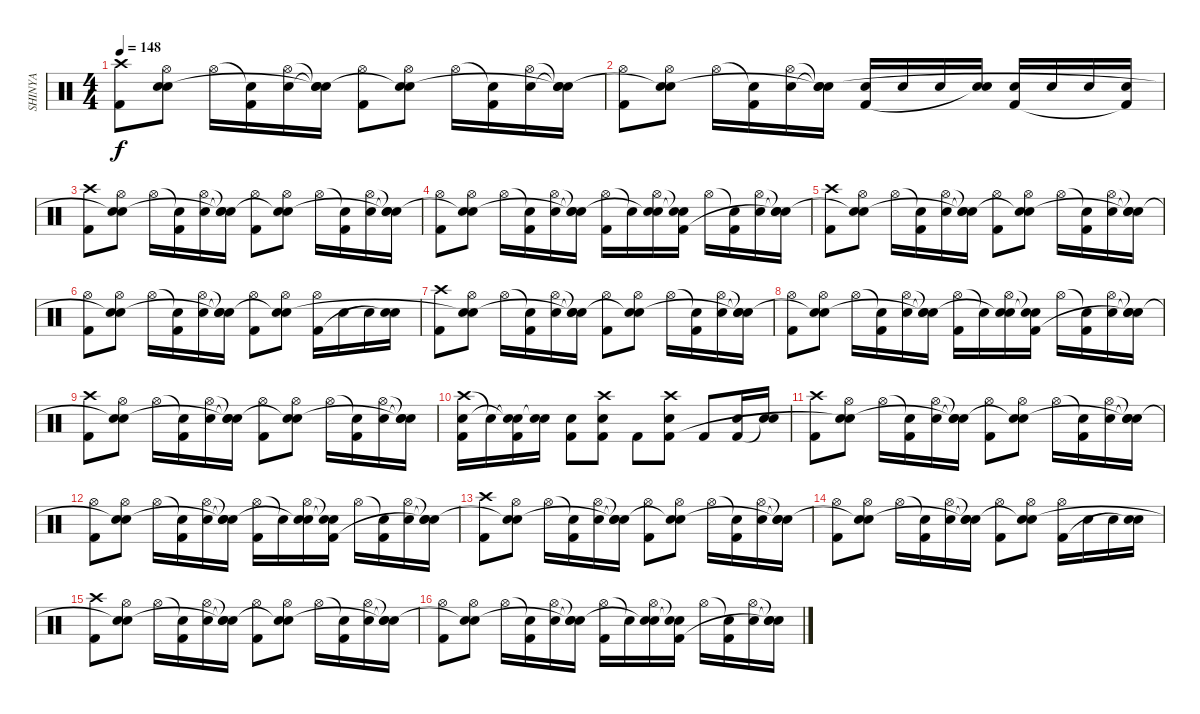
\track ("SHINYA" "SHINYA") {instrument percussion}
\staff {score}
\articulation defaults
\ts (4 4)
\tempo 148
\clef neutral
\ks c
("Crash high (hit)" "Kick (hit) 2").8{dy f} ("Hi-Hat (open)" "Electric Snare (hit)" "Snare (hit)"{t}).8 "Hi-Hat (open)".16 ("Snare (hit)"{t} "Kick (hit) 2").16 ("Hi-Hat (open)" "Electric Snare (hit)").16 ("Snare (hit)"{t} "Electric Snare (hit)"{t} "Snare (hit)"{t}).16 ("Hi-Hat (open)" "Kick (hit) 2").8 ("Hi-Hat (open)" "Electric Snare (hit)" "Snare (hit)"{t}).8 "Hi-Hat (open)".16 ("Snare (hit)"{t} "Kick (hit) 2").16 ("Hi-Hat (open)" "Electric Snare (hit)").16 ("Snare (hit)"{t} "Electric Snare (hit)"{t} "Snare (hit)"{t}).16 |
("Hi-Hat (open)" "Kick (hit) 2").8 ("Hi-Hat (open)" "Electric Snare (hit)" "Snare (hit)"{t}).8 "Hi-Hat (open)".16 ("Snare (hit)"{t} "Kick (hit) 2").16 ("Hi-Hat (open)" "Electric Snare (hit)").16 ("Snare (hit)"{t} "Snare (hit)"{t} "Snare (hit)"{t}).16 ("Electric Snare (hit)" "Kick (hit) 2").16 "Electric Snare (hit)".16 "Electric Snare (hit)".16 ("Electric Snare (hit)" "Snare (hit)"{t}).16 ("Electric Snare (hit)" "Kick (hit) 2").16 "Electric Snare (hit)".16 "Electric Snare (hit)".16 ("Electric Snare (hit)" "Kick (hit) 2"{t}).16 |
("Crash high (hit)" "Kick (hit) 2").8 ("Hi-Hat (open)" "Electric Snare (hit)" "Snare (hit)"{t}).8 "Hi-Hat (open)".16 ("Snare (hit)"{t} "Kick (hit) 2").16 ("Hi-Hat (open)" "Electric Snare (hit)").16 ("Snare (hit)"{t} "Electric Snare (hit)"{t} "Snare (hit)"{t}).16 ("Hi-Hat (open)" "Kick (hit) 2").8 ("Hi-Hat (open)" "Electric Snare (hit)" "Snare (hit)"{t}).8 "Hi-Hat (open)".16 ("Snare (hit)"{t} "Kick (hit) 2").16 ("Hi-Hat (open)" "Electric Snare (hit)").16 ("Snare (hit)"{t} "Electric Snare (hit)"{t} "Snare (hit)"{t}).16 |
("Hi-Hat (open)" "Kick (hit) 2").8 ("Hi-Hat (open)" "Electric Snare (hit)" "Snare (hit)"{t}).8 "Hi-Hat (open)".16 ("Snare (hit)"{t} "Kick (hit) 2").16 ("Hi-Hat (open)" "Electric Snare (hit)").16 ("Snare (hit)"{t} "Electric Snare (hit)"{t} "Snare (hit)"{t}).16 ("Hi-Hat (open)" "Kick (hit) 2").16 "Snare (hit)"{t}.16 ("Hi-Hat (open)" "Electric Snare (hit)" "Snare (hit)"{t}).16 ("Snare (hit)"{t} "Snare (hit)"{t} "Kick (hit) 2").16 "Hi-Hat (open)".16 ("Snare (hit)"{t} "Kick (hit) 2").16 ("Hi-Hat (open)" "Electric Snare (hit)").16 ("Snare (hit)"{t} "Electric Snare (hit)"{t} "Snare (hit)"{t}).16 |
("Crash high (hit)" "Kick (hit) 2").8 ("Hi-Hat (open)" "Electric Snare (hit)" "Snare (hit)"{t}).8 "Hi-Hat (open)".16 ("Snare (hit)"{t} "Kick (hit) 2").16 ("Hi-Hat (open)" "Electric Snare (hit)").16 ("Snare (hit)"{t} "Electric Snare (hit)"{t} "Snare (hit)"{t}).16 ("Hi-Hat (open)" "Kick (hit) 2").8 ("Hi-Hat (open)" "Electric Snare (hit)" "Snare (hit)"{t}).8 "Hi-Hat (open)".16 ("Snare (hit)"{t} "Kick (hit) 2").16 ("Hi-Hat (open)" "Electric Snare (hit)").16 ("Snare (hit)"{t} "Electric Snare (hit)"{t} "Snare (hit)"{t}).16 |
("Hi-Hat (open)" "Kick (hit) 2").8 ("Hi-Hat (open)" "Electric Snare (hit)" "Snare (hit)"{t}).8 "Hi-Hat (open)".16 ("Snare (hit)"{t} "Kick (hit) 2").16 ("Hi-Hat (open)" "Electric Snare (hit)").16 ("Snare (hit)"{t} "Electric Snare (hit)"{t} "Snare (hit)"{t}).16 ("Hi-Hat (open)" "Kick (hit) 2").8 ("Hi-Hat (open)" "Electric Snare (hit)" "Snare (hit)"{t}).8 ("Hi-Hat (open)" "Kick (hit) 2").16 "Electric Snare (hit)".16 "Electric Snare (hit)".16 ("Electric Snare (hit)" "Snare (hit)"{t}).16 |
("Crash high (hit)" "Kick (hit) 2").8 ("Hi-Hat (open)" "Electric Snare (hit)" "Snare (hit)"{t}).8 "Hi-Hat (open)".16 ("Snare (hit)"{t} "Kick (hit) 2").16 ("Hi-Hat (open)" "Electric Snare (hit)").16 ("Snare (hit)"{t} "Electric Snare (hit)"{t} "Snare (hit)"{t}).16 ("Hi-Hat (open)" "Kick (hit) 2").8 ("Hi-Hat (open)" "Electric Snare (hit)" "Snare (hit)"{t}).8 "Hi-Hat (open)".16 ("Snare (hit)"{t} "Kick (hit) 2").16 ("Hi-Hat (open)" "Electric Snare (hit)").16 ("Snare (hit)"{t} "Electric Snare (hit)"{t} "Snare (hit)"{t}).16 |
("Hi-Hat (open)" "Kick (hit) 2").8 ("Hi-Hat (open)" "Electric Snare (hit)" "Snare (hit)"{t}).8 "Hi-Hat (open)".16 ("Snare (hit)"{t} "Kick (hit) 2").16 ("Hi-Hat (open)" "Electric Snare (hit)").16 ("Snare (hit)"{t} "Electric Snare (hit)"{t} "Snare (hit)"{t}).16 ("Hi-Hat (open)" "Kick (hit) 2").16 "Snare (hit)"{t}.16 ("Hi-Hat (open)" "Electric Snare (hit)" "Snare (hit)"{t}).16 ("Snare (hit)"{t} "Snare (hit)"{t} "Kick (hit) 2").16 "Hi-Hat (open)".16 ("Snare (hit)"{t} "Kick (hit) 2").16 ("Hi-Hat (open)" "Electric Snare (hit)").16 ("Snare (hit)"{t} "Electric Snare (hit)"{t} "Snare (hit)"{t}).16 |
("Crash high (hit)" "Kick (hit) 2").8 ("Hi-Hat (open)" "Electric Snare (hit)" "Snare (hit)"{t}).8 "Hi-Hat (open)".16 ("Snare (hit)"{t} "Kick (hit) 2").16 ("Hi-Hat (open)" "Electric Snare (hit)").16 ("Snare (hit)"{t} "Electric Snare (hit)"{t} "Snare (hit)"{t}).16 ("Hi-Hat (open)" "Kick (hit) 2").8 ("Hi-Hat (open)" "Electric Snare (hit)" "Snare (hit)"{t}).8 "Hi-Hat (open)".16 ("Snare (hit)"{t} "Kick (hit) 2").16 ("Hi-Hat (open)" "Electric Snare (hit)").16 ("Snare (hit)"{t} "Electric Snare (hit)"{t} "Snare (hit)"{t}).16 |
("Crash high (hit)" "Electric Snare (hit)" "Kick (hit) 2").16 "Snare (hit)"{t}.16 ("Snare (hit)"{t} "Snare (hit)"{t} "Kick (hit) 2").16 ("Electric Snare (hit)" "Snare (hit)"{t}).16 ("Electric Snare (hit)" "Kick (hit) 2").8 ("Crash high (hit)" "Electric Snare (hit)" "Kick (hit) 2").8 "Kick (hit) 2".8 ("Crash high (hit)" "Electric Snare (hit)" "Kick (hit) 2").8 "Kick (hit) 2".8 ("Electric Snare (hit)" "Kick (hit) 2").16 ("Electric Snare (hit)" "Snare (hit)"{t}).16 |
("Crash high (hit)" "Kick (hit) 2").8 ("Hi-Hat (open)" "Electric Snare (hit)" "Snare (hit)"{t}).8 "Hi-Hat (open)".16 ("Snare (hit)"{t} "Kick (hit) 2").16 ("Hi-Hat (open)" "Electric Snare (hit)").16 ("Snare (hit)"{t} "Electric Snare (hit)"{t} "Snare (hit)"{t}).16 ("Hi-Hat (open)" "Kick (hit) 2").8 ("Hi-Hat (open)" "Electric Snare (hit)" "Snare (hit)"{t}).8 "Hi-Hat (open)".16 ("Snare (hit)"{t} "Kick (hit) 2").16 ("Hi-Hat (open)" "Electric Snare (hit)").16 ("Snare (hit)"{t} "Electric Snare (hit)"{t} "Snare (hit)"{t}).16 |
("Hi-Hat (open)" "Kick (hit) 2").8 ("Hi-Hat (open)" "Electric Snare (hit)" "Snare (hit)"{t}).8 "Hi-Hat (open)".16 ("Snare (hit)"{t} "Kick (hit) 2").16 ("Hi-Hat (open)" "Electric Snare (hit)").16 ("Snare (hit)"{t} "Electric Snare (hit)"{t} "Snare (hit)"{t}).16 ("Hi-Hat (open)" "Kick (hit) 2").16 "Snare (hit)"{t}.16 ("Hi-Hat (open)" "Electric Snare (hit)" "Snare (hit)"{t}).16 ("Snare (hit)"{t} "Snare (hit)"{t} "Kick (hit) 2").16 "Hi-Hat (open)".16 ("Snare (hit)"{t} "Kick (hit) 2").16 ("Hi-Hat (open)" "Electric Snare (hit)").16 ("Snare (hit)"{t} "Electric Snare (hit)"{t} "Snare (hit)"{t}).16 |
("Crash high (hit)" "Kick (hit) 2").8 ("Hi-Hat (open)" "Electric Snare (hit)" "Snare (hit)"{t}).8 "Hi-Hat (open)".16 ("Snare (hit)"{t} "Kick (hit) 2").16 ("Hi-Hat (open)" "Electric Snare (hit)").16 ("Snare (hit)"{t} "Electric Snare (hit)"{t} "Snare (hit)"{t}).16 ("Hi-Hat (open)" "Kick (hit) 2").8 ("Hi-Hat (open)" "Electric Snare (hit)" "Snare (hit)"{t}).8 "Hi-Hat (open)".16 ("Snare (hit)"{t} "Kick (hit) 2").16 ("Hi-Hat (open)" "Electric Snare (hit)").16 ("Snare (hit)"{t} "Electric Snare (hit)"{t} "Snare (hit)"{t}).16 |
("Hi-Hat (open)" "Kick (hit) 2").8 ("Hi-Hat (open)" "Electric Snare (hit)" "Snare (hit)"{t}).8 "Hi-Hat (open)".16 ("Snare (hit)"{t} "Kick (hit) 2").16 ("Hi-Hat (open)" "Electric Snare (hit)").16 ("Snare (hit)"{t} "Electric Snare (hit)"{t} "Snare (hit)"{t}).16 ("Hi-Hat (open)" "Kick (hit) 2").8 ("Hi-Hat (open)" "Electric Snare (hit)" "Snare (hit)"{t}).8 ("Hi-Hat (open)" "Kick (hit) 2").16 "Electric Snare (hit)".16 "Electric Snare (hit)".16 ("Electric Snare (hit)" "Snare (hit)"{t}).16 |
("Crash high (hit)" "Kick (hit) 2").8 ("Hi-Hat (open)" "Electric Snare (hit)" "Snare (hit)"{t}).8 "Hi-Hat (open)".16 ("Snare (hit)"{t} "Kick (hit) 2").16 ("Hi-Hat (open)" "Electric Snare (hit)").16 ("Snare (hit)"{t} "Electric Snare (hit)"{t} "Snare (hit)"{t}).16 ("Hi-Hat (open)" "Kick (hit) 2").8 ("Hi-Hat (open)" "Electric Snare (hit)" "Snare (hit)"{t}).8 "Hi-Hat (open)".16 ("Snare (hit)"{t} "Kick (hit) 2").16 ("Hi-Hat (open)" "Electric Snare (hit)").16 ("Snare (hit)"{t} "Electric Snare (hit)"{t} "Snare (hit)"{t}).16 |
("Hi-Hat (open)" "Kick (hit) 2").8 ("Hi-Hat (open)" "Electric Snare (hit)" "Snare (hit)"{t}).8 "Hi-Hat (open)".16 ("Snare (hit)"{t} "Kick (hit) 2").16 ("Hi-Hat (open)" "Electric Snare (hit)").16 ("Snare (hit)"{t} "Electric Snare (hit)"{t} "Snare (hit)"{t}).16 ("Hi-Hat (open)" "Kick (hit) 2").16 "Snare (hit)"{t}.16 ("Hi-Hat (open)" "Electric Snare (hit)" "Snare (hit)"{t}).16 ("Snare (hit)"{t} "Snare (hit)"{t} "Kick (hit) 2").16 "Hi-Hat (open)".16 ("Snare (hit)"{t} "Kick (hit) 2").16 ("Hi-Hat (open)" "Electric Snare (hit)").16 ("Snare (hit)"{t} "Electric Snare (hit)"{t} "Snare (hit)"{t}).16
